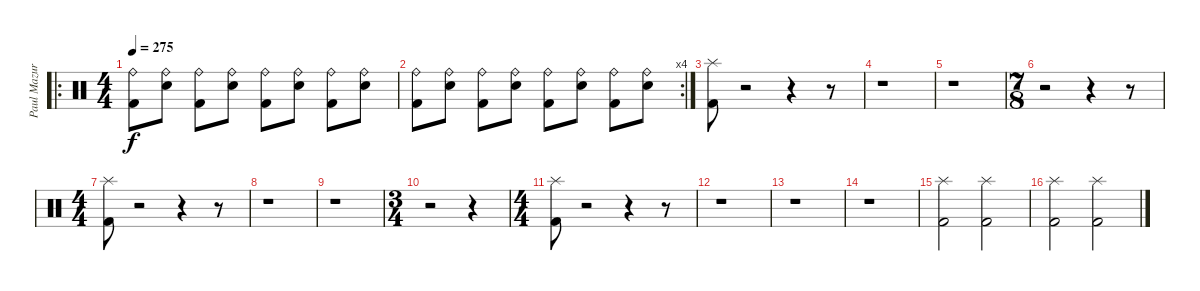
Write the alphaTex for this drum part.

\track ("Paul Mazurkiewicz" "Paul Mazur") {instrument percussion}
\staff {score}
\articulation defaults
\ro
\ts (4 4)
\tempo 275
\clef neutral
\ks c
("Ride (bell)" "Kick (hit) 2").8{dy f} ("Ride (bell)" "Snare (hit) 2").8 ("Ride (bell)" "Kick (hit) 2").8 ("Ride (bell)" "Snare (hit) 2").8 ("Ride (bell)" "Kick (hit) 2").8 ("Ride (bell)" "Snare (hit) 2").8 ("Ride (bell)" "Kick (hit) 2").8 ("Ride (bell)" "Snare (hit) 2").8 |
\rc 4
("Ride (bell)" "Kick (hit) 2").8 ("Ride (bell)" "Snare (hit) 2").8 ("Ride (bell)" "Kick (hit) 2").8 ("Ride (bell)" "Snare (hit) 2").8 ("Ride (bell)" "Kick (hit) 2").8 ("Ride (bell)" "Snare (hit) 2").8 ("Ride (bell)" "Kick (hit) 2").8 ("Ride (bell)" "Snare (hit) 2").8 |
("Splash (hit)" "Kick (hit) 2").8 r.2 r.4 r.8 |
r.1 |
r.1 |
\ts (7 8)
r.2 r.4 r.8 |
\ts (4 4)
("Splash (hit)" "Kick (hit) 2").8 r.2 r.4 r.8 |
r.1 |
r.1 |
\ts (3 4)
r.2 r.4 |
\ts (4 4)
("Splash (hit)" "Kick (hit) 2").8 r.2 r.4 r.8 |
r.1 |
r.1 |
r.1 |
("Splash (hit)" "Kick (hit) 2").2 ("Splash (hit)" "Kick (hit) 2").2 |
("Splash (hit)" "Kick (hit) 2").2 ("Splash (hit)" "Kick (hit) 2").2
